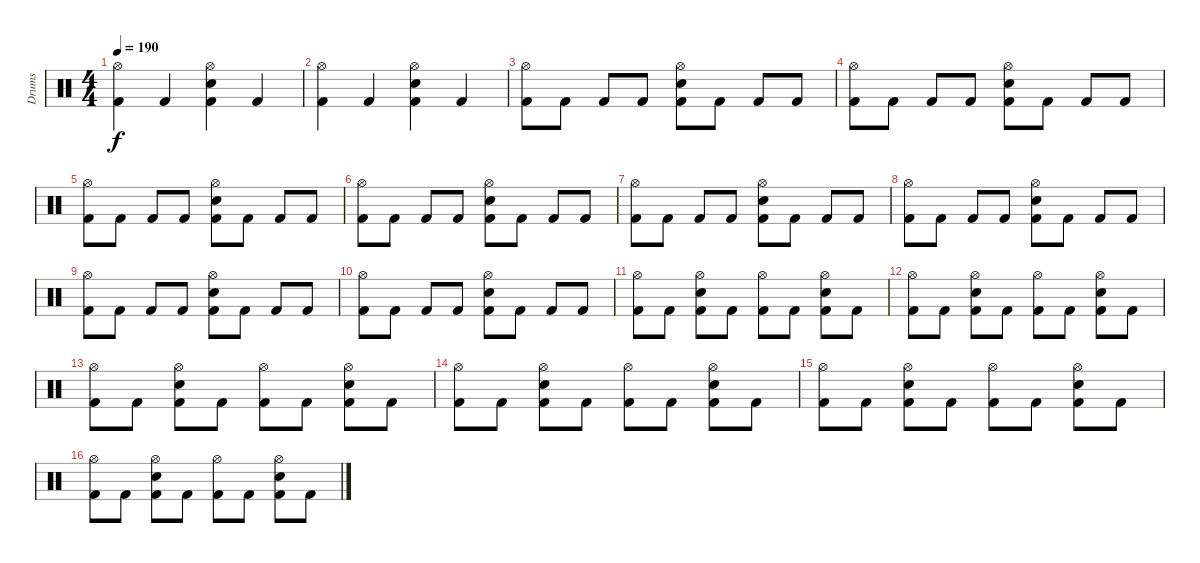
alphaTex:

\track ("Drums" "Drums") {instrument percussion}
\staff {score}
\articulation defaults
\ts (4 4)
\tempo 190
\clef neutral
\ks c
("Hi-Hat (open)" "Kick (hit) 2").4{dy f} "Kick (hit) 2".4 ("Hi-Hat (open)" "Kick (hit) 2" "Snare (hit) 2").4 "Kick (hit) 2".4 |
("Hi-Hat (open)" "Kick (hit) 2").4 "Kick (hit) 2".4 ("Hi-Hat (open)" "Kick (hit) 2" "Snare (hit) 2").4 "Kick (hit) 2".4 |
("Hi-Hat (open)" "Kick (hit) 2").8 "Kick (hit) 2".8 "Kick (hit) 2".8 "Kick (hit) 2".8 ("Hi-Hat (open)" "Kick (hit) 2" "Snare (hit) 2").8 "Kick (hit) 2".8 "Kick (hit) 2".8 "Kick (hit) 2".8 |
("Hi-Hat (open)" "Kick (hit) 2").8 "Kick (hit) 2".8 "Kick (hit) 2".8 "Kick (hit) 2".8 ("Hi-Hat (open)" "Kick (hit) 2" "Snare (hit) 2").8 "Kick (hit) 2".8 "Kick (hit) 2".8 "Kick (hit) 2".8 |
("Hi-Hat (open)" "Kick (hit) 2").8 "Kick (hit) 2".8 "Kick (hit) 2".8 "Kick (hit) 2".8 ("Hi-Hat (open)" "Kick (hit) 2" "Snare (hit) 2").8 "Kick (hit) 2".8 "Kick (hit) 2".8 "Kick (hit) 2".8 |
("Hi-Hat (open)" "Kick (hit) 2").8 "Kick (hit) 2".8 "Kick (hit) 2".8 "Kick (hit) 2".8 ("Hi-Hat (open)" "Kick (hit) 2" "Snare (hit) 2").8 "Kick (hit) 2".8 "Kick (hit) 2".8 "Kick (hit) 2".8 |
("Hi-Hat (open)" "Kick (hit) 2").8 "Kick (hit) 2".8 "Kick (hit) 2".8 "Kick (hit) 2".8 ("Hi-Hat (open)" "Kick (hit) 2" "Snare (hit) 2").8 "Kick (hit) 2".8 "Kick (hit) 2".8 "Kick (hit) 2".8 |
("Hi-Hat (open)" "Kick (hit) 2").8 "Kick (hit) 2".8 "Kick (hit) 2".8 "Kick (hit) 2".8 ("Hi-Hat (open)" "Kick (hit) 2" "Snare (hit) 2").8 "Kick (hit) 2".8 "Kick (hit) 2".8 "Kick (hit) 2".8 |
("Hi-Hat (open)" "Kick (hit) 2").8 "Kick (hit) 2".8 "Kick (hit) 2".8 "Kick (hit) 2".8 ("Hi-Hat (open)" "Kick (hit) 2" "Snare (hit) 2").8 "Kick (hit) 2".8 "Kick (hit) 2".8 "Kick (hit) 2".8 |
("Hi-Hat (open)" "Kick (hit) 2").8 "Kick (hit) 2".8 "Kick (hit) 2".8 "Kick (hit) 2".8 ("Hi-Hat (open)" "Kick (hit) 2" "Snare (hit) 2").8 "Kick (hit) 2".8 "Kick (hit) 2".8 "Kick (hit) 2".8 |
("Hi-Hat (open)" "Kick (hit) 2").8 "Kick (hit) 2".8 ("Hi-Hat (open)" "Kick (hit) 2" "Snare (hit) 2").8 "Kick (hit) 2".8 ("Hi-Hat (open)" "Kick (hit) 2").8 "Kick (hit) 2".8 ("Hi-Hat (open)" "Kick (hit) 2" "Snare (hit) 2").8 "Kick (hit) 2".8 |
("Hi-Hat (open)" "Kick (hit) 2").8 "Kick (hit) 2".8 ("Hi-Hat (open)" "Kick (hit) 2" "Snare (hit) 2").8 "Kick (hit) 2".8 ("Hi-Hat (open)" "Kick (hit) 2").8 "Kick (hit) 2".8 ("Hi-Hat (open)" "Kick (hit) 2" "Snare (hit) 2").8 "Kick (hit) 2".8 |
("Hi-Hat (open)" "Kick (hit) 2").8 "Kick (hit) 2".8 ("Hi-Hat (open)" "Kick (hit) 2" "Snare (hit) 2").8 "Kick (hit) 2".8 ("Hi-Hat (open)" "Kick (hit) 2").8 "Kick (hit) 2".8 ("Hi-Hat (open)" "Kick (hit) 2" "Snare (hit) 2").8 "Kick (hit) 2".8 |
("Hi-Hat (open)" "Kick (hit) 2").8 "Kick (hit) 2".8 ("Hi-Hat (open)" "Kick (hit) 2" "Snare (hit) 2").8 "Kick (hit) 2".8 ("Hi-Hat (open)" "Kick (hit) 2").8 "Kick (hit) 2".8 ("Hi-Hat (open)" "Kick (hit) 2" "Snare (hit) 2").8 "Kick (hit) 2".8 |
("Hi-Hat (open)" "Kick (hit) 2").8 "Kick (hit) 2".8 ("Hi-Hat (open)" "Kick (hit) 2" "Snare (hit) 2").8 "Kick (hit) 2".8 ("Hi-Hat (open)" "Kick (hit) 2").8 "Kick (hit) 2".8 ("Hi-Hat (open)" "Kick (hit) 2" "Snare (hit) 2").8 "Kick (hit) 2".8 |
("Hi-Hat (open)" "Kick (hit) 2").8 "Kick (hit) 2".8 ("Hi-Hat (open)" "Kick (hit) 2" "Snare (hit) 2").8 "Kick (hit) 2".8 ("Hi-Hat (open)" "Kick (hit) 2").8 "Kick (hit) 2".8 ("Hi-Hat (open)" "Kick (hit) 2" "Snare (hit) 2").8 "Kick (hit) 2".8
